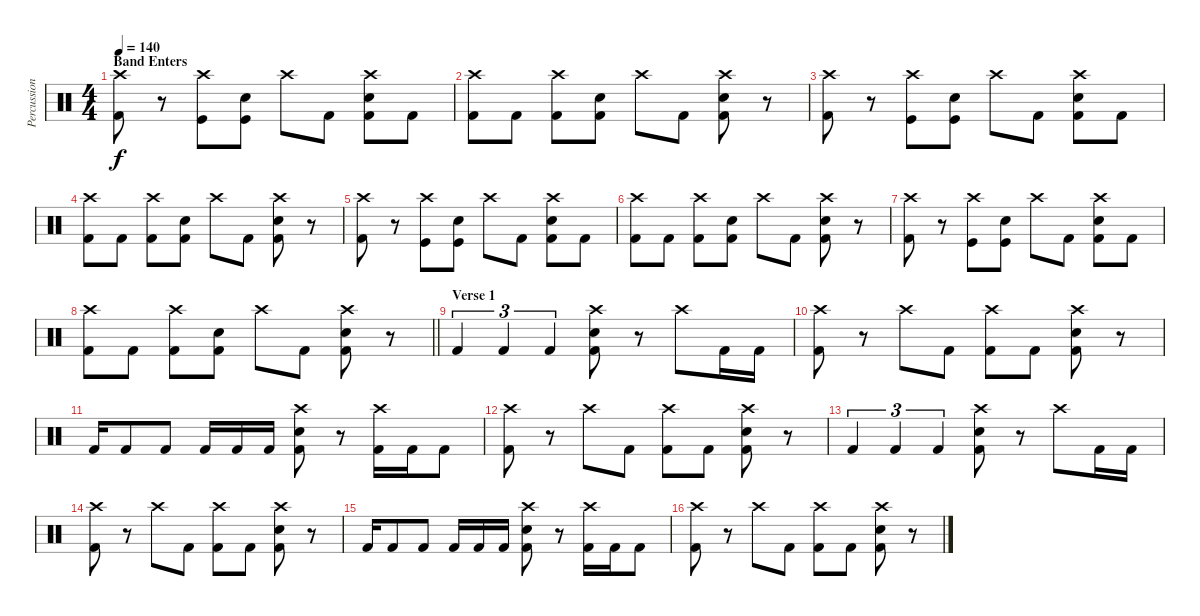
\track ("Percussion" "Percussion") {instrument percussion}
\staff {score}
\articulation defaults
\ts (4 4)
\section ("" "Band Enters")
\tempo 140
\clef neutral
\ks c
("Crash high (hit)" "Kick (hit) 2").8{dy f} r.8 ("Crash high (hit)" "Kick (hit)").8 ("Electric Snare (hit)" "Kick (hit)").8 "Crash high (hit)".8 "Kick (hit) 2".8 ("Crash high (hit)" "Electric Snare (hit)" "Kick (hit) 2").8 "Kick (hit) 2".8 |
("Crash high (hit)" "Kick (hit) 2").8 "Kick (hit) 2".8 ("Crash high (hit)" "Kick (hit) 2").8 ("Electric Snare (hit)" "Kick (hit) 2").8 "Crash high (hit)".8 "Kick (hit) 2".8 ("Crash high (hit)" "Electric Snare (hit)" "Kick (hit) 2").8 r.8 |
("Crash high (hit)" "Kick (hit) 2").8 r.8 ("Crash high (hit)" "Kick (hit)").8 ("Electric Snare (hit)" "Kick (hit)").8 "Crash high (hit)".8 "Kick (hit) 2".8 ("Crash high (hit)" "Electric Snare (hit)" "Kick (hit) 2").8 "Kick (hit) 2".8 |
("Crash high (hit)" "Kick (hit) 2").8 "Kick (hit) 2".8 ("Crash high (hit)" "Kick (hit) 2").8 ("Electric Snare (hit)" "Kick (hit) 2").8 "Crash high (hit)".8 "Kick (hit) 2".8 ("Crash high (hit)" "Electric Snare (hit)" "Kick (hit) 2").8 r.8 |
("Crash high (hit)" "Kick (hit) 2").8 r.8 ("Crash high (hit)" "Kick (hit)").8 ("Electric Snare (hit)" "Kick (hit)").8 "Crash high (hit)".8 "Kick (hit) 2".8 ("Crash high (hit)" "Electric Snare (hit)" "Kick (hit) 2").8 "Kick (hit) 2".8 |
("Crash high (hit)" "Kick (hit) 2").8 "Kick (hit) 2".8 ("Crash high (hit)" "Kick (hit) 2").8 ("Electric Snare (hit)" "Kick (hit) 2").8 "Crash high (hit)".8 "Kick (hit) 2".8 ("Crash high (hit)" "Electric Snare (hit)" "Kick (hit) 2").8 r.8 |
("Crash high (hit)" "Kick (hit) 2").8 r.8 ("Crash high (hit)" "Kick (hit)").8 ("Electric Snare (hit)" "Kick (hit)").8 "Crash high (hit)".8 "Kick (hit) 2".8 ("Crash high (hit)" "Electric Snare (hit)" "Kick (hit) 2").8 "Kick (hit) 2".8 |
\barLineRight lightlight
("Crash high (hit)" "Kick (hit) 2").8 "Kick (hit) 2".8 ("Crash high (hit)" "Kick (hit) 2").8 ("Electric Snare (hit)" "Kick (hit) 2").8 "Crash high (hit)".8 "Kick (hit) 2".8 ("Crash high (hit)" "Electric Snare (hit)" "Kick (hit) 2").8 r.8 |
\section ("" "Verse 1")
"Kick (hit) 2".4{tu (3 2)} "Kick (hit) 2".4{tu (3 2)} "Kick (hit) 2".4{tu (3 2)} ("Crash high (hit)" "Electric Snare (hit)" "Kick (hit) 2").8 r.8 "Crash high (hit)".8 "Kick (hit) 2".16 "Kick (hit) 2".16 |
("Crash high (hit)" "Kick (hit) 2").8 r.8 "Crash high (hit)".8 "Kick (hit) 2".8 ("Crash high (hit)" "Kick (hit) 2").8 "Kick (hit) 2".8 ("Crash high (hit)" "Electric Snare (hit)" "Kick (hit) 2").8 r.8 |
"Kick (hit) 2".16 "Kick (hit) 2".8 "Kick (hit) 2".8 "Kick (hit) 2".16 "Kick (hit) 2".16 "Kick (hit) 2".16 ("Crash high (hit)" "Electric Snare (hit)" "Kick (hit) 2").8 r.8 ("Crash high (hit)" "Kick (hit) 2").16 "Kick (hit) 2".16 "Kick (hit) 2".8 |
("Crash high (hit)" "Kick (hit) 2").8 r.8 "Crash high (hit)".8 "Kick (hit) 2".8 ("Crash high (hit)" "Kick (hit) 2").8 "Kick (hit) 2".8 ("Crash high (hit)" "Electric Snare (hit)" "Kick (hit) 2").8 r.8 |
"Kick (hit) 2".4{tu (3 2)} "Kick (hit) 2".4{tu (3 2)} "Kick (hit) 2".4{tu (3 2)} ("Crash high (hit)" "Electric Snare (hit)" "Kick (hit) 2").8 r.8 "Crash high (hit)".8 "Kick (hit) 2".16 "Kick (hit) 2".16 |
("Crash high (hit)" "Kick (hit) 2").8 r.8 "Crash high (hit)".8 "Kick (hit) 2".8 ("Crash high (hit)" "Kick (hit) 2").8 "Kick (hit) 2".8 ("Crash high (hit)" "Electric Snare (hit)" "Kick (hit) 2").8 r.8 |
"Kick (hit) 2".16 "Kick (hit) 2".8 "Kick (hit) 2".8 "Kick (hit) 2".16 "Kick (hit) 2".16 "Kick (hit) 2".16 ("Crash high (hit)" "Electric Snare (hit)" "Kick (hit) 2").8 r.8 ("Crash high (hit)" "Kick (hit) 2").16 "Kick (hit) 2".16 "Kick (hit) 2".8 |
("Crash high (hit)" "Kick (hit) 2").8 r.8 "Crash high (hit)".8 "Kick (hit) 2".8 ("Crash high (hit)" "Kick (hit) 2").8 "Kick (hit) 2".8 ("Crash high (hit)" "Electric Snare (hit)" "Kick (hit) 2").8 r.8
